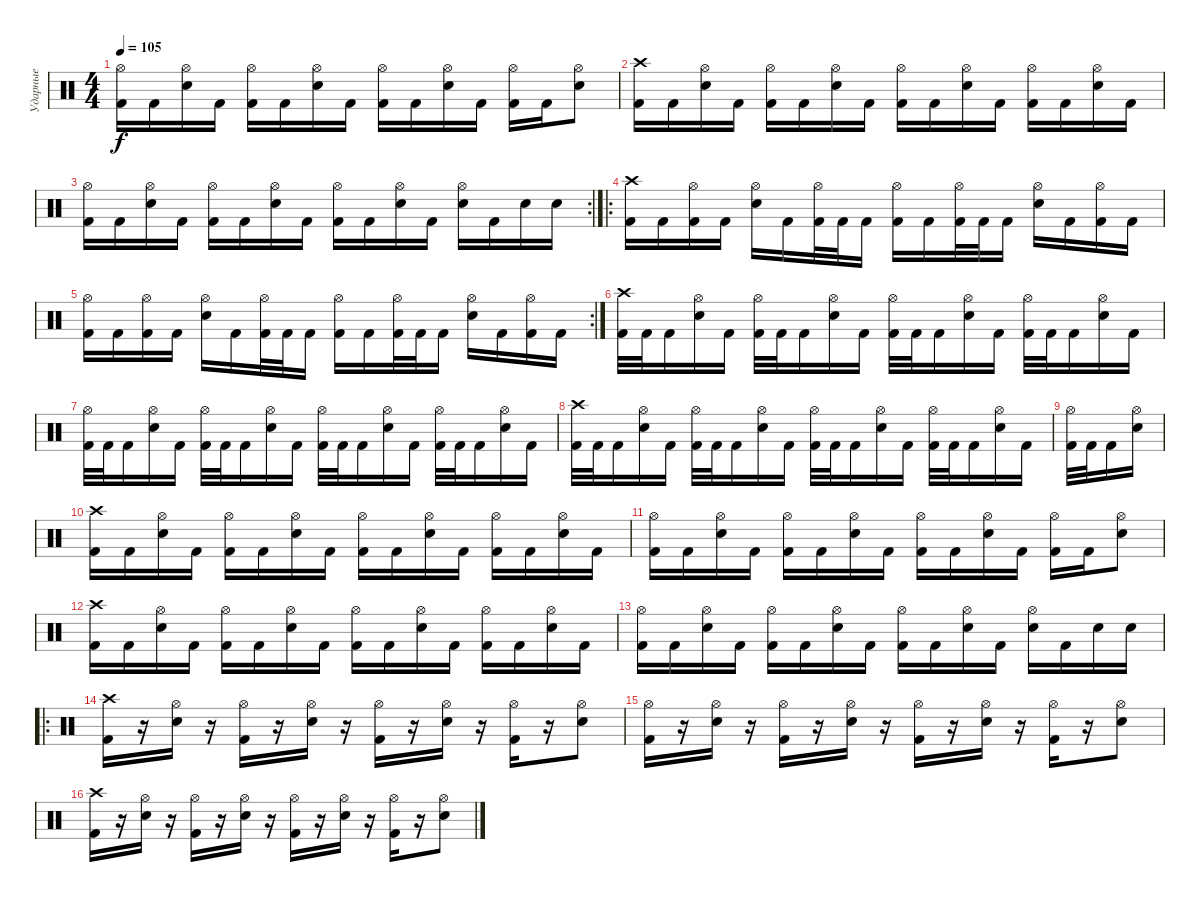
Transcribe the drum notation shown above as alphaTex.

\track ("Ударные" "Ударные") {instrument percussion}
\staff {score}
\articulation defaults
\ts (4 4)
\tempo 105
\clef neutral
\ks c
("Hi-Hat (open)" "Kick (hit) 2").16{dy f} "Kick (hit) 2".16 ("Hi-Hat (open)" "Electric Snare (hit)").16 "Kick (hit) 2".16 ("Hi-Hat (open)" "Kick (hit) 2").16 "Kick (hit) 2".16 ("Hi-Hat (open)" "Electric Snare (hit)").16 "Kick (hit) 2".16 ("Hi-Hat (open)" "Kick (hit) 2").16 "Kick (hit) 2".16 ("Hi-Hat (open)" "Electric Snare (hit)").16 "Kick (hit) 2".16 ("Hi-Hat (open)" "Kick (hit) 2").16 "Kick (hit) 2".16 ("Hi-Hat (open)" "Electric Snare (hit)").8 |
("Crash high (hit)" "Kick (hit) 2").16 "Kick (hit) 2".16 ("Hi-Hat (open)" "Electric Snare (hit)").16 "Kick (hit) 2".16 ("Hi-Hat (open)" "Kick (hit) 2").16 "Kick (hit) 2".16 ("Hi-Hat (open)" "Electric Snare (hit)").16 "Kick (hit) 2".16 ("Hi-Hat (open)" "Kick (hit) 2").16 "Kick (hit) 2".16 ("Hi-Hat (open)" "Electric Snare (hit)").16 "Kick (hit) 2".16 ("Hi-Hat (open)" "Kick (hit) 2").16 "Kick (hit) 2".16 ("Hi-Hat (open)" "Electric Snare (hit)").16 "Kick (hit) 2".16 |
\rc 2
("Hi-Hat (open)" "Kick (hit) 2").16 "Kick (hit) 2".16 ("Hi-Hat (open)" "Electric Snare (hit)").16 "Kick (hit) 2".16 ("Hi-Hat (open)" "Kick (hit) 2").16 "Kick (hit) 2".16 ("Hi-Hat (open)" "Electric Snare (hit)").16 "Kick (hit) 2".16 ("Hi-Hat (open)" "Kick (hit) 2").16 "Kick (hit) 2".16 ("Hi-Hat (open)" "Electric Snare (hit)").16 "Kick (hit) 2".16 ("Hi-Hat (open)" "Electric Snare (hit)").16 "Kick (hit) 2".16 "Electric Snare (hit)".16 "Electric Snare (hit)".16 |
\ro
("Crash high (hit)" "Kick (hit) 2").16 "Kick (hit) 2".16 ("Hi-Hat (open)" "Kick (hit) 2").16 "Kick (hit) 2".16 ("Hi-Hat (open)" "Electric Snare (hit)").16 "Kick (hit) 2".16 ("Hi-Hat (open)" "Kick (hit) 2").32 "Kick (hit) 2".32 "Kick (hit) 2".16 ("Hi-Hat (open)" "Kick (hit) 2").16 "Kick (hit) 2".16 ("Hi-Hat (open)" "Kick (hit) 2").32 "Kick (hit) 2".32 "Kick (hit) 2".16 ("Hi-Hat (open)" "Electric Snare (hit)").16 "Kick (hit) 2".16 ("Hi-Hat (open)" "Kick (hit) 2").16 "Kick (hit) 2".16 |
\rc 2
("Hi-Hat (open)" "Kick (hit) 2").16 "Kick (hit) 2".16 ("Hi-Hat (open)" "Kick (hit) 2").16 "Kick (hit) 2".16 ("Hi-Hat (open)" "Electric Snare (hit)").16 "Kick (hit) 2".16 ("Hi-Hat (open)" "Kick (hit) 2").32 "Kick (hit) 2".32 "Kick (hit) 2".16 ("Hi-Hat (open)" "Kick (hit) 2").16 "Kick (hit) 2".16 ("Hi-Hat (open)" "Kick (hit) 2").32 "Kick (hit) 2".32 "Kick (hit) 2".16 ("Hi-Hat (open)" "Electric Snare (hit)").16 "Kick (hit) 2".16 ("Hi-Hat (open)" "Kick (hit) 2").16 "Kick (hit) 2".16 |
("Crash high (hit)" "Kick (hit) 2").32 "Kick (hit) 2".32 "Kick (hit) 2".16 ("Hi-Hat (open)" "Electric Snare (hit)").16 "Kick (hit) 2".16 ("Hi-Hat (open)" "Kick (hit) 2").32 "Kick (hit) 2".32 "Kick (hit) 2".16 ("Hi-Hat (open)" "Electric Snare (hit)").16 "Kick (hit) 2".16 ("Hi-Hat (open)" "Kick (hit) 2").32 "Kick (hit) 2".32 "Kick (hit) 2".16 ("Hi-Hat (open)" "Electric Snare (hit)").16 "Kick (hit) 2".16 ("Hi-Hat (open)" "Kick (hit) 2").32 "Kick (hit) 2".32 "Kick (hit) 2".16 ("Hi-Hat (open)" "Electric Snare (hit)").16 "Kick (hit) 2".16 |
("Hi-Hat (open)" "Kick (hit) 2").32 "Kick (hit) 2".32 "Kick (hit) 2".16 ("Hi-Hat (open)" "Electric Snare (hit)").16 "Kick (hit) 2".16 ("Hi-Hat (open)" "Kick (hit) 2").32 "Kick (hit) 2".32 "Kick (hit) 2".16 ("Hi-Hat (open)" "Electric Snare (hit)").16 "Kick (hit) 2".16 ("Hi-Hat (open)" "Kick (hit) 2").32 "Kick (hit) 2".32 "Kick (hit) 2".16 ("Hi-Hat (open)" "Electric Snare (hit)").16 "Kick (hit) 2".16 ("Hi-Hat (open)" "Kick (hit) 2").32 "Kick (hit) 2".32 "Kick (hit) 2".16 ("Hi-Hat (open)" "Electric Snare (hit)").16 "Kick (hit) 2".16 |
("Crash high (hit)" "Kick (hit) 2").32 "Kick (hit) 2".32 "Kick (hit) 2".16 ("Hi-Hat (open)" "Electric Snare (hit)").16 "Kick (hit) 2".16 ("Hi-Hat (open)" "Kick (hit) 2").32 "Kick (hit) 2".32 "Kick (hit) 2".16 ("Hi-Hat (open)" "Electric Snare (hit)").16 "Kick (hit) 2".16 ("Hi-Hat (open)" "Kick (hit) 2").32 "Kick (hit) 2".32 "Kick (hit) 2".16 ("Hi-Hat (open)" "Electric Snare (hit)").16 "Kick (hit) 2".16 ("Hi-Hat (open)" "Kick (hit) 2").32 "Kick (hit) 2".32 "Kick (hit) 2".16 ("Hi-Hat (open)" "Electric Snare (hit)").16 "Kick (hit) 2".16 |
("Hi-Hat (open)" "Kick (hit) 2").32 "Kick (hit) 2".32 "Kick (hit) 2".16 ("Hi-Hat (open)" "Electric Snare (hit)").16 |
("Crash high (hit)" "Kick (hit) 2").16 "Kick (hit) 2".16 ("Hi-Hat (open)" "Electric Snare (hit)").16 "Kick (hit) 2".16 ("Hi-Hat (open)" "Kick (hit) 2").16 "Kick (hit) 2".16 ("Hi-Hat (open)" "Electric Snare (hit)").16 "Kick (hit) 2".16 ("Hi-Hat (open)" "Kick (hit) 2").16 "Kick (hit) 2".16 ("Hi-Hat (open)" "Electric Snare (hit)").16 "Kick (hit) 2".16 ("Hi-Hat (open)" "Kick (hit) 2").16 "Kick (hit) 2".16 ("Hi-Hat (open)" "Electric Snare (hit)").16 "Kick (hit) 2".16 |
("Hi-Hat (open)" "Kick (hit) 2").16 "Kick (hit) 2".16 ("Hi-Hat (open)" "Electric Snare (hit)").16 "Kick (hit) 2".16 ("Hi-Hat (open)" "Kick (hit) 2").16 "Kick (hit) 2".16 ("Hi-Hat (open)" "Electric Snare (hit)").16 "Kick (hit) 2".16 ("Hi-Hat (open)" "Kick (hit) 2").16 "Kick (hit) 2".16 ("Hi-Hat (open)" "Electric Snare (hit)").16 "Kick (hit) 2".16 ("Hi-Hat (open)" "Kick (hit) 2").16 "Kick (hit) 2".16 ("Hi-Hat (open)" "Electric Snare (hit)").8 |
("Crash high (hit)" "Kick (hit) 2").16 "Kick (hit) 2".16 ("Hi-Hat (open)" "Electric Snare (hit)").16 "Kick (hit) 2".16 ("Hi-Hat (open)" "Kick (hit) 2").16 "Kick (hit) 2".16 ("Hi-Hat (open)" "Electric Snare (hit)").16 "Kick (hit) 2".16 ("Hi-Hat (open)" "Kick (hit) 2").16 "Kick (hit) 2".16 ("Hi-Hat (open)" "Electric Snare (hit)").16 "Kick (hit) 2".16 ("Hi-Hat (open)" "Kick (hit) 2").16 "Kick (hit) 2".16 ("Hi-Hat (open)" "Electric Snare (hit)").16 "Kick (hit) 2".16 |
("Hi-Hat (open)" "Kick (hit) 2").16 "Kick (hit) 2".16 ("Hi-Hat (open)" "Electric Snare (hit)").16 "Kick (hit) 2".16 ("Hi-Hat (open)" "Kick (hit) 2").16 "Kick (hit) 2".16 ("Hi-Hat (open)" "Electric Snare (hit)").16 "Kick (hit) 2".16 ("Hi-Hat (open)" "Kick (hit) 2").16 "Kick (hit) 2".16 ("Hi-Hat (open)" "Electric Snare (hit)").16 "Kick (hit) 2".16 ("Hi-Hat (open)" "Electric Snare (hit)").16 "Kick (hit) 2".16 "Electric Snare (hit)".16 "Electric Snare (hit)".16 |
\ro
("Crash high (hit)" "Kick (hit) 2").16 r.16 ("Hi-Hat (open)" "Electric Snare (hit)").16 r.16 ("Hi-Hat (open)" "Kick (hit) 2").16 r.16 ("Hi-Hat (open)" "Electric Snare (hit)").16 r.16 ("Hi-Hat (open)" "Kick (hit) 2").16 r.16 ("Hi-Hat (open)" "Electric Snare (hit)").16 r.16 ("Hi-Hat (open)" "Kick (hit) 2").16 r.16 ("Hi-Hat (open)" "Electric Snare (hit)").8 |
("Hi-Hat (open)" "Kick (hit) 2").16 r.16 ("Hi-Hat (open)" "Electric Snare (hit)").16 r.16 ("Hi-Hat (open)" "Kick (hit) 2").16 r.16 ("Hi-Hat (open)" "Electric Snare (hit)").16 r.16 ("Hi-Hat (open)" "Kick (hit) 2").16 r.16 ("Hi-Hat (open)" "Electric Snare (hit)").16 r.16 ("Hi-Hat (open)" "Kick (hit) 2").16 r.16 ("Hi-Hat (open)" "Electric Snare (hit)").8 |
("Crash high (hit)" "Kick (hit) 2").16 r.16 ("Hi-Hat (open)" "Electric Snare (hit)").16 r.16 ("Hi-Hat (open)" "Kick (hit) 2").16 r.16 ("Hi-Hat (open)" "Electric Snare (hit)").16 r.16 ("Hi-Hat (open)" "Kick (hit) 2").16 r.16 ("Hi-Hat (open)" "Electric Snare (hit)").16 r.16 ("Hi-Hat (open)" "Kick (hit) 2").16 r.16 ("Hi-Hat (open)" "Electric Snare (hit)").8
